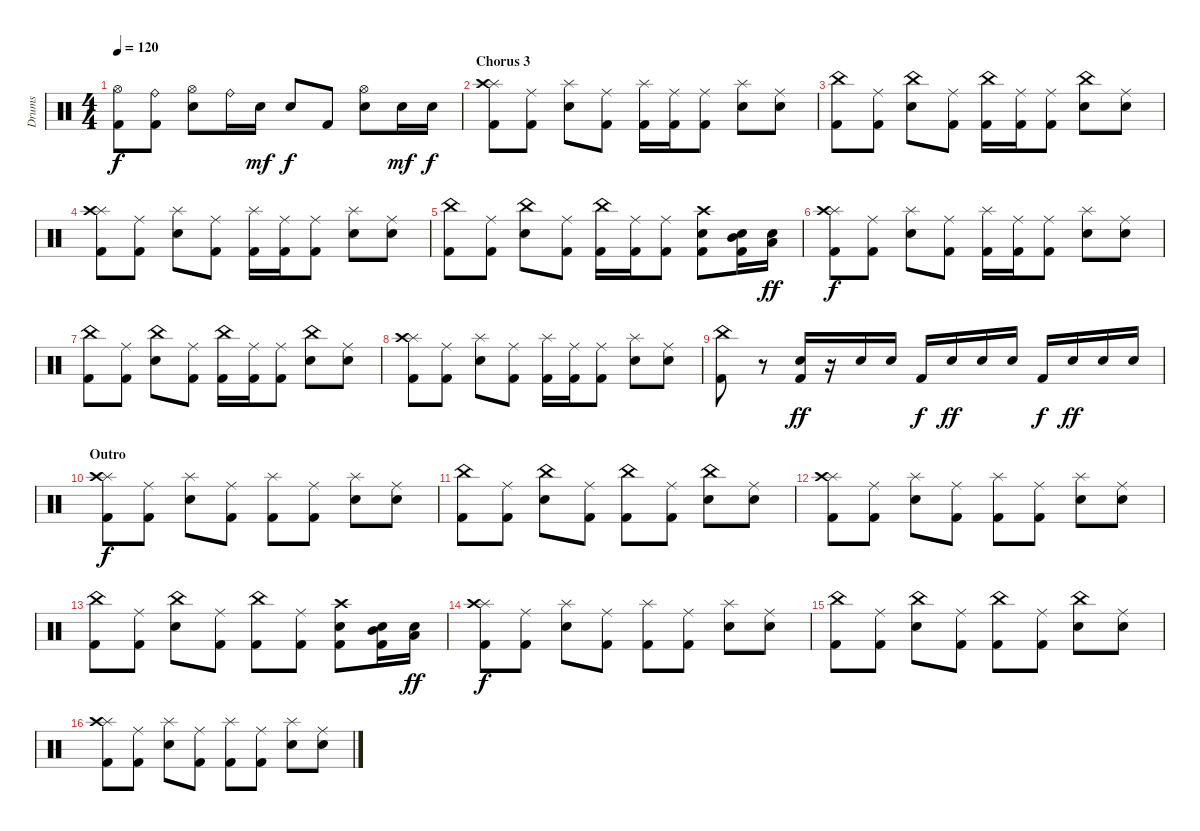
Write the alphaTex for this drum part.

\track ("Drums" "Drums") {instrument percussion}
\staff {score}
\articulation defaults
\ts (4 4)
\tempo 120
\clef neutral
\ks c
("Hi-Hat (open)" "Kick (hit) 2").8{dy f} ("Ride (bell)" "Kick (hit) 2").8 ("Hi-Hat (open)" "Electric Snare (hit)").8 "Ride (bell)".16 "Electric Snare (hit)".16{dy mf} "Electric Snare (hit)".8{dy f} "Kick (hit) 2".8 ("Hi-Hat (open)" "Electric Snare (hit)").8 "Electric Snare (hit)".16{dy mf} "Electric Snare (hit)".16{dy f} |
\section ("" "Chorus 3")
("Splash (hit)" "Crash high (hit)" "Kick (hit) 2").8 ("Ride (middle)" "Kick (hit) 2").8 ("Splash (hit)" "Electric Snare (hit)").8 ("Ride (middle)" "Kick (hit) 2").8 ("Splash (hit)" "Kick (hit) 2").16 ("Ride (middle)" "Kick (hit) 2").16 ("Ride (middle)" "Kick (hit) 2").8 ("Splash (hit)" "Electric Snare (hit)").8 ("Ride (middle)" "Electric Snare (hit)").8 |
("China (hit)" "Kick (hit) 2").8 ("Ride (middle)" "Kick (hit) 2").8 ("China (hit)" "Electric Snare (hit)").8 ("Ride (middle)" "Kick (hit) 2").8 ("China (hit)" "Kick (hit) 2").16 ("Ride (middle)" "Kick (hit) 2").16 ("Ride (middle)" "Kick (hit) 2").8 ("China (hit)" "Electric Snare (hit)").8 ("Ride (middle)" "Electric Snare (hit)").8 |
("Splash (hit)" "Crash high (hit)" "Kick (hit) 2").8 ("Ride (middle)" "Kick (hit) 2").8 ("Splash (hit)" "Electric Snare (hit)").8 ("Ride (middle)" "Kick (hit) 2").8 ("Splash (hit)" "Kick (hit) 2").16 ("Ride (middle)" "Kick (hit) 2").16 ("Ride (middle)" "Kick (hit) 2").8 ("Splash (hit)" "Electric Snare (hit)").8 ("Ride (middle)" "Electric Snare (hit)").8 |
("China (hit)" "Kick (hit) 2").8 ("Ride (middle)" "Kick (hit) 2").8 ("China (hit)" "Electric Snare (hit)").8 ("Ride (middle)" "Kick (hit) 2").8 ("China (hit)" "Kick (hit) 2").16 ("Ride (middle)" "Kick (hit) 2").16 ("Ride (middle)" "Kick (hit) 2").8 ("Crash high (hit)" "Electric Snare (hit)" "Kick (hit) 2").8 ("Mid Tom (hit)" "Electric Snare (hit)" "Kick (hit) 2").16 ("Low Tom (hit)" "Electric Snare (hit)").16{dy ff} |
("Splash (hit)" "Crash high (hit)" "Kick (hit) 2").8{dy f} ("Ride (middle)" "Kick (hit) 2").8 ("Splash (hit)" "Electric Snare (hit)").8 ("Ride (middle)" "Kick (hit) 2").8 ("Splash (hit)" "Kick (hit) 2").16 ("Ride (middle)" "Kick (hit) 2").16 ("Ride (middle)" "Kick (hit) 2").8 ("Splash (hit)" "Electric Snare (hit)").8 ("Ride (middle)" "Electric Snare (hit)").8 |
("China (hit)" "Kick (hit) 2").8 ("Ride (middle)" "Kick (hit) 2").8 ("China (hit)" "Electric Snare (hit)").8 ("Ride (middle)" "Kick (hit) 2").8 ("China (hit)" "Kick (hit) 2").16 ("Ride (middle)" "Kick (hit) 2").16 ("Ride (middle)" "Kick (hit) 2").8 ("China (hit)" "Electric Snare (hit)").8 ("Ride (middle)" "Electric Snare (hit)").8 |
("Splash (hit)" "Crash high (hit)" "Kick (hit) 2").8 ("Ride (middle)" "Kick (hit) 2").8 ("Splash (hit)" "Electric Snare (hit)").8 ("Ride (middle)" "Kick (hit) 2").8 ("Splash (hit)" "Kick (hit) 2").16 ("Ride (middle)" "Kick (hit) 2").16 ("Ride (middle)" "Kick (hit) 2").8 ("Splash (hit)" "Electric Snare (hit)").8 ("Ride (middle)" "Electric Snare (hit)").8 |
("China (hit)" "Kick (hit) 2").8 r.8 ("Electric Snare (hit)" "Kick (hit) 2").16{dy ff} r.16 "Electric Snare (hit)".16 "Electric Snare (hit)".16 "Kick (hit) 2".16{dy f} "Electric Snare (hit)".16{dy ff} "Electric Snare (hit)".16 "Electric Snare (hit)".16 "Kick (hit) 2".16{dy f} "Electric Snare (hit)".16{dy ff} "Electric Snare (hit)".16 "Electric Snare (hit)".16 |
\section ("" "Outro")
("Splash (hit)" "Crash high (hit)" "Kick (hit) 2").8{dy f} ("Ride (middle)" "Kick (hit) 2").8 ("Splash (hit)" "Electric Snare (hit)").8 ("Ride (middle)" "Kick (hit) 2").8 ("Splash (hit)" "Kick (hit) 2").8 ("Ride (middle)" "Kick (hit) 2").8 ("Splash (hit)" "Electric Snare (hit)").8 ("Ride (middle)" "Electric Snare (hit)").8 |
("China (hit)" "Kick (hit) 2").8 ("Ride (middle)" "Kick (hit) 2").8 ("China (hit)" "Electric Snare (hit)").8 ("Ride (middle)" "Kick (hit) 2").8 ("China (hit)" "Kick (hit) 2").8 ("Ride (middle)" "Kick (hit) 2").8 ("China (hit)" "Electric Snare (hit)").8 ("Ride (middle)" "Electric Snare (hit)").8 |
("Splash (hit)" "Crash high (hit)" "Kick (hit) 2").8 ("Ride (middle)" "Kick (hit) 2").8 ("Splash (hit)" "Electric Snare (hit)").8 ("Ride (middle)" "Kick (hit) 2").8 ("Splash (hit)" "Kick (hit) 2").8 ("Ride (middle)" "Kick (hit) 2").8 ("Splash (hit)" "Electric Snare (hit)").8 ("Ride (middle)" "Electric Snare (hit)").8 |
("China (hit)" "Kick (hit) 2").8 ("Ride (middle)" "Kick (hit) 2").8 ("China (hit)" "Electric Snare (hit)").8 ("Ride (middle)" "Kick (hit) 2").8 ("China (hit)" "Kick (hit) 2").8 ("Ride (middle)" "Kick (hit) 2").8 ("Crash high (hit)" "Electric Snare (hit)" "Kick (hit) 2").8 ("Mid Tom (hit)" "Electric Snare (hit)" "Kick (hit) 2").16 ("Low Tom (hit)" "Electric Snare (hit)").16{dy ff} |
("Splash (hit)" "Crash high (hit)" "Kick (hit) 2").8{dy f} ("Ride (middle)" "Kick (hit) 2").8 ("Splash (hit)" "Electric Snare (hit)").8 ("Ride (middle)" "Kick (hit) 2").8 ("Splash (hit)" "Kick (hit) 2").8 ("Ride (middle)" "Kick (hit) 2").8 ("Splash (hit)" "Electric Snare (hit)").8 ("Ride (middle)" "Electric Snare (hit)").8 |
("China (hit)" "Kick (hit) 2").8 ("Ride (middle)" "Kick (hit) 2").8 ("China (hit)" "Electric Snare (hit)").8 ("Ride (middle)" "Kick (hit) 2").8 ("China (hit)" "Kick (hit) 2").8 ("Ride (middle)" "Kick (hit) 2").8 ("China (hit)" "Electric Snare (hit)").8 ("Ride (middle)" "Electric Snare (hit)").8 |
("Splash (hit)" "Crash high (hit)" "Kick (hit) 2").8 ("Ride (middle)" "Kick (hit) 2").8 ("Splash (hit)" "Electric Snare (hit)").8 ("Ride (middle)" "Kick (hit) 2").8 ("Splash (hit)" "Kick (hit) 2").8 ("Ride (middle)" "Kick (hit) 2").8 ("Splash (hit)" "Electric Snare (hit)").8 ("Ride (middle)" "Electric Snare (hit)").8
